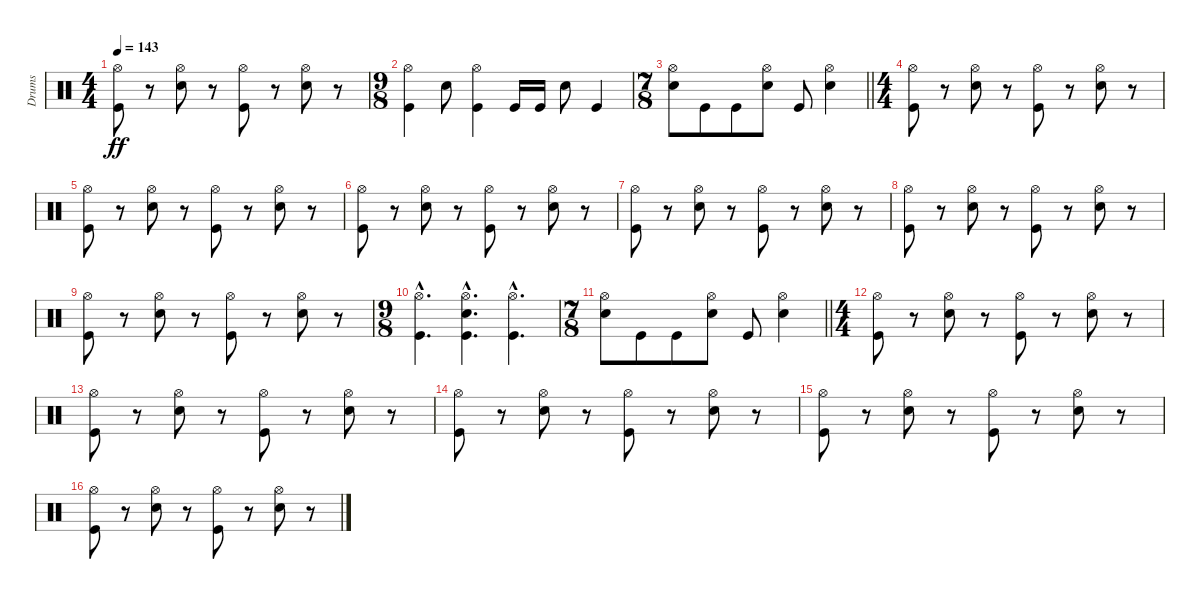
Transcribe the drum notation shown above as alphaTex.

\track ("Drums" "Drums") {instrument percussion}
\staff {score}
\articulation defaults
\ts (4 4)
\tempo 143
\clef neutral
\ks c
("Hi-Hat (open)" "Kick (hit)").8{dy ff} r.8 ("Hi-Hat (open)" "Electric Snare (hit)").8 r.8 ("Hi-Hat (open)" "Kick (hit)").8 r.8 ("Hi-Hat (open)" "Electric Snare (hit)").8 r.8 |
\ts (9 8)
("Hi-Hat (open)" "Kick (hit)").4 "Electric Snare (hit)".8 ("Hi-Hat (open)" "Kick (hit)").4 "Kick (hit)".16 "Kick (hit)".16 "Electric Snare (hit)".8 "Kick (hit)".4 |
\ts (7 8)
\barLineRight lightlight
("Hi-Hat (open)" "Electric Snare (hit)").8 "Kick (hit)".8 "Kick (hit)".8 ("Hi-Hat (open)" "Electric Snare (hit)").8 "Kick (hit)".8 ("Hi-Hat (open)" "Electric Snare (hit)").4 |
\ts (4 4)
\section ("" "")
("Hi-Hat (open)" "Kick (hit)").8 r.8 ("Hi-Hat (open)" "Electric Snare (hit)").8 r.8 ("Hi-Hat (open)" "Kick (hit)").8 r.8 ("Hi-Hat (open)" "Electric Snare (hit)").8 r.8 |
("Hi-Hat (open)" "Kick (hit)").8 r.8 ("Hi-Hat (open)" "Electric Snare (hit)").8 r.8 ("Hi-Hat (open)" "Kick (hit)").8 r.8 ("Hi-Hat (open)" "Electric Snare (hit)").8 r.8 |
("Hi-Hat (open)" "Kick (hit)").8 r.8 ("Hi-Hat (open)" "Electric Snare (hit)").8 r.8 ("Hi-Hat (open)" "Kick (hit)").8 r.8 ("Hi-Hat (open)" "Electric Snare (hit)").8 r.8 |
("Hi-Hat (open)" "Kick (hit)").8 r.8 ("Hi-Hat (open)" "Electric Snare (hit)").8 r.8 ("Hi-Hat (open)" "Kick (hit)").8 r.8 ("Hi-Hat (open)" "Electric Snare (hit)").8 r.8 |
("Hi-Hat (open)" "Kick (hit)").8 r.8 ("Hi-Hat (open)" "Electric Snare (hit)").8 r.8 ("Hi-Hat (open)" "Kick (hit)").8 r.8 ("Hi-Hat (open)" "Electric Snare (hit)").8 r.8 |
("Hi-Hat (open)" "Kick (hit)").8 r.8 ("Hi-Hat (open)" "Electric Snare (hit)").8 r.8 ("Hi-Hat (open)" "Kick (hit)").8 r.8 ("Hi-Hat (open)" "Electric Snare (hit)").8 r.8 |
\ts (9 8)
("Hi-Hat (open)"{hac} "Kick (hit)"{hac}).4{d} ("Hi-Hat (open)"{hac} "Electric Snare (hit)"{hac} "Kick (hit)"{hac}).4{d} ("Hi-Hat (open)"{hac} "Kick (hit)"{hac}).4{d} |
\ts (7 8)
\barLineRight lightlight
("Hi-Hat (open)" "Electric Snare (hit)").8 "Kick (hit)".8 "Kick (hit)".8 ("Hi-Hat (open)" "Electric Snare (hit)").8 "Kick (hit)".8 ("Hi-Hat (open)" "Electric Snare (hit)").4 |
\ts (4 4)
\section ("" "")
("Hi-Hat (open)" "Kick (hit)").8 r.8 ("Hi-Hat (open)" "Electric Snare (hit)").8 r.8 ("Hi-Hat (open)" "Kick (hit)").8 r.8 ("Hi-Hat (open)" "Electric Snare (hit)").8 r.8 |
("Hi-Hat (open)" "Kick (hit)").8 r.8 ("Hi-Hat (open)" "Electric Snare (hit)").8 r.8 ("Hi-Hat (open)" "Kick (hit)").8 r.8 ("Hi-Hat (open)" "Electric Snare (hit)").8 r.8 |
("Hi-Hat (open)" "Kick (hit)").8 r.8 ("Hi-Hat (open)" "Electric Snare (hit)").8 r.8 ("Hi-Hat (open)" "Kick (hit)").8 r.8 ("Hi-Hat (open)" "Electric Snare (hit)").8 r.8 |
("Hi-Hat (open)" "Kick (hit)").8 r.8 ("Hi-Hat (open)" "Electric Snare (hit)").8 r.8 ("Hi-Hat (open)" "Kick (hit)").8 r.8 ("Hi-Hat (open)" "Electric Snare (hit)").8 r.8 |
("Hi-Hat (open)" "Kick (hit)").8 r.8 ("Hi-Hat (open)" "Electric Snare (hit)").8 r.8 ("Hi-Hat (open)" "Kick (hit)").8 r.8 ("Hi-Hat (open)" "Electric Snare (hit)").8 r.8
